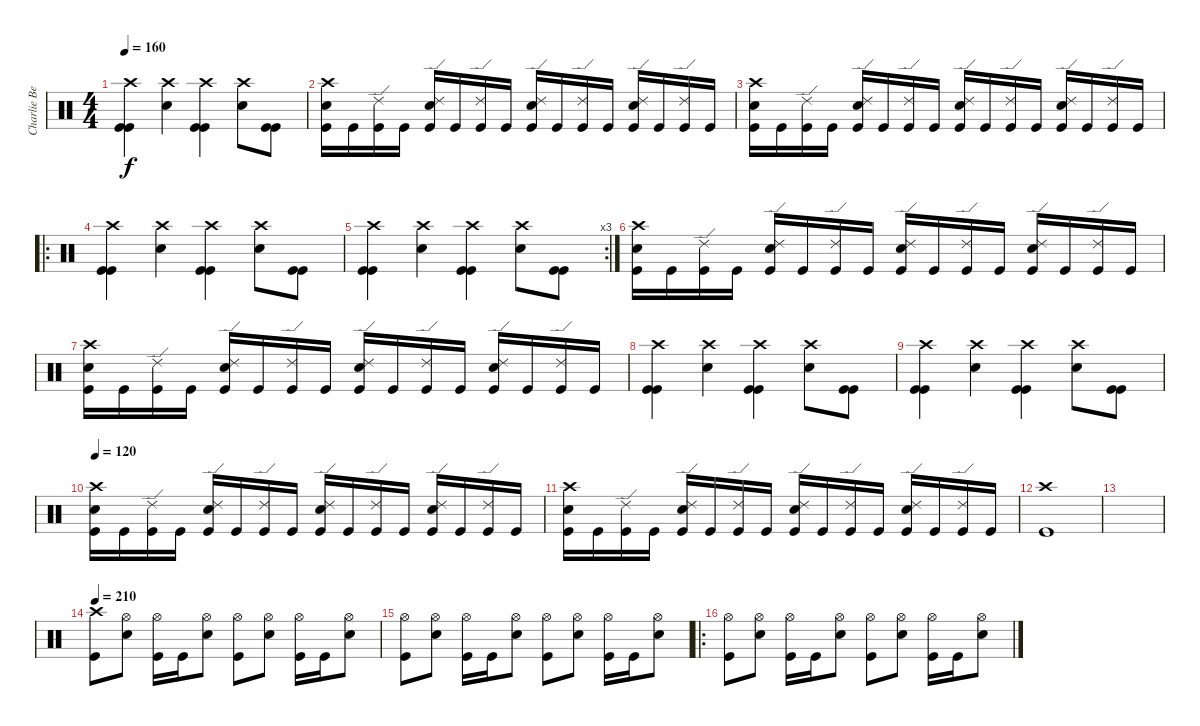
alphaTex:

\track ("Charlie Benante" "Charlie Be") {instrument percussion}
\staff {score}
\articulation defaults
\ts (4 4)
\tempo 160
\clef neutral
\ks c
("Crash high (hit)" "Kick (hit)" "Kick (hit)").4{dy f} ("Crash high (hit)" "Snare (hit) 2").4 ("Crash high (hit)" "Kick (hit)" "Kick (hit)").4 ("Crash high (hit)" "Snare (hit) 2").8 ("Kick (hit)" "Kick (hit)").8 |
("Crash high (hit)" "Snare (hit) 2" "Kick (hit)").16 "Kick (hit)".16 ("Ride (edge) 2" "Kick (hit)").16 "Kick (hit)".16 ("Ride (edge) 2" "Snare (hit) 2" "Kick (hit)").16 "Kick (hit)".16 ("Ride (edge) 2" "Kick (hit)").16 "Kick (hit)".16 ("Ride (edge) 2" "Snare (hit) 2" "Kick (hit)").16 "Kick (hit)".16 ("Ride (edge) 2" "Kick (hit)").16 "Kick (hit)".16 ("Ride (edge) 2" "Snare (hit) 2" "Kick (hit)").16 "Kick (hit)".16 ("Ride (edge) 2" "Kick (hit)").16 "Kick (hit)".16 |
("Crash high (hit)" "Snare (hit) 2" "Kick (hit)").16 "Kick (hit)".16 ("Ride (edge) 2" "Kick (hit)").16 "Kick (hit)".16 ("Ride (edge) 2" "Snare (hit) 2" "Kick (hit)").16 "Kick (hit)".16 ("Ride (edge) 2" "Kick (hit)").16 "Kick (hit)".16 ("Ride (edge) 2" "Snare (hit) 2" "Kick (hit)").16 "Kick (hit)".16 ("Ride (edge) 2" "Kick (hit)").16 "Kick (hit)".16 ("Ride (edge) 2" "Snare (hit) 2" "Kick (hit)").16 "Kick (hit)".16 ("Ride (edge) 2" "Kick (hit)").16 "Kick (hit)".16 |
\ro
("Crash high (hit)" "Kick (hit)" "Kick (hit)").4 ("Crash high (hit)" "Snare (hit) 2").4 ("Crash high (hit)" "Kick (hit)" "Kick (hit)").4 ("Crash high (hit)" "Snare (hit) 2").8 ("Kick (hit)" "Kick (hit)").8 |
\rc 3
("Crash high (hit)" "Kick (hit)" "Kick (hit)").4 ("Crash high (hit)" "Snare (hit) 2").4 ("Crash high (hit)" "Kick (hit)" "Kick (hit)").4 ("Crash high (hit)" "Snare (hit) 2").8 ("Kick (hit)" "Kick (hit)").8 |
("Crash high (hit)" "Snare (hit) 2" "Kick (hit)").16 "Kick (hit)".16 ("Ride (edge) 2" "Kick (hit)").16 "Kick (hit)".16 ("Ride (edge) 2" "Snare (hit) 2" "Kick (hit)").16 "Kick (hit)".16 ("Ride (edge) 2" "Kick (hit)").16 "Kick (hit)".16 ("Ride (edge) 2" "Snare (hit) 2" "Kick (hit)").16 "Kick (hit)".16 ("Ride (edge) 2" "Kick (hit)").16 "Kick (hit)".16 ("Ride (edge) 2" "Snare (hit) 2" "Kick (hit)").16 "Kick (hit)".16 ("Ride (edge) 2" "Kick (hit)").16 "Kick (hit)".16 |
("Crash high (hit)" "Snare (hit) 2" "Kick (hit)").16 "Kick (hit)".16 ("Ride (edge) 2" "Kick (hit)").16 "Kick (hit)".16 ("Ride (edge) 2" "Snare (hit) 2" "Kick (hit)").16 "Kick (hit)".16 ("Ride (edge) 2" "Kick (hit)").16 "Kick (hit)".16 ("Ride (edge) 2" "Snare (hit) 2" "Kick (hit)").16 "Kick (hit)".16 ("Ride (edge) 2" "Kick (hit)").16 "Kick (hit)".16 ("Ride (edge) 2" "Snare (hit) 2" "Kick (hit)").16 "Kick (hit)".16 ("Ride (edge) 2" "Kick (hit)").16 "Kick (hit)".16 |
("Crash high (hit)" "Kick (hit)" "Kick (hit)").4 ("Crash high (hit)" "Snare (hit) 2").4 ("Crash high (hit)" "Kick (hit)" "Kick (hit)").4 ("Crash high (hit)" "Snare (hit) 2").8 ("Kick (hit)" "Kick (hit)").8 |
("Crash high (hit)" "Kick (hit)" "Kick (hit)").4 ("Crash high (hit)" "Snare (hit) 2").4 ("Crash high (hit)" "Kick (hit)" "Kick (hit)").4 ("Crash high (hit)" "Snare (hit) 2").8 ("Kick (hit)" "Kick (hit)").8 |
\tempo 120
("Crash high (hit)" "Snare (hit) 2" "Kick (hit)").16 "Kick (hit)".16 ("Ride (edge) 2" "Kick (hit)").16 "Kick (hit)".16 ("Ride (edge) 2" "Snare (hit) 2" "Kick (hit)").16 "Kick (hit)".16 ("Ride (edge) 2" "Kick (hit)").16 "Kick (hit)".16 ("Ride (edge) 2" "Snare (hit) 2" "Kick (hit)").16 "Kick (hit)".16 ("Ride (edge) 2" "Kick (hit)").16 "Kick (hit)".16 ("Ride (edge) 2" "Snare (hit) 2" "Kick (hit)").16 "Kick (hit)".16 ("Ride (edge) 2" "Kick (hit)").16 "Kick (hit)".16 |
("Crash high (hit)" "Snare (hit) 2" "Kick (hit)").16 "Kick (hit)".16 ("Ride (edge) 2" "Kick (hit)").16 "Kick (hit)".16 ("Ride (edge) 2" "Snare (hit) 2" "Kick (hit)").16 "Kick (hit)".16 ("Ride (edge) 2" "Kick (hit)").16 "Kick (hit)".16 ("Ride (edge) 2" "Snare (hit) 2" "Kick (hit)").16 "Kick (hit)".16 ("Ride (edge) 2" "Kick (hit)").16 "Kick (hit)".16 ("Ride (edge) 2" "Snare (hit) 2" "Kick (hit)").16 "Kick (hit)".16 ("Ride (edge) 2" "Kick (hit)").16 "Kick (hit)".16 |
("Crash high (hit)" "Kick (hit)").1 |
|
\tempo 210
("Crash high (hit)" "Kick (hit)").8 ("Hi-Hat (open)" "Snare (hit) 2").8 ("Hi-Hat (open)" "Kick (hit)").16 "Kick (hit)".16 ("Hi-Hat (open)" "Snare (hit) 2").8 ("Hi-Hat (open)" "Kick (hit)").8 ("Hi-Hat (open)" "Snare (hit) 2").8 ("Hi-Hat (open)" "Kick (hit)").16 "Kick (hit)".16 ("Hi-Hat (open)" "Snare (hit) 2").8 |
("Hi-Hat (open)" "Kick (hit)").8 ("Hi-Hat (open)" "Snare (hit) 2").8 ("Hi-Hat (open)" "Kick (hit)").16 "Kick (hit)".16 ("Hi-Hat (open)" "Snare (hit) 2").8 ("Hi-Hat (open)" "Kick (hit)").8 ("Hi-Hat (open)" "Snare (hit) 2").8 ("Hi-Hat (open)" "Kick (hit)").16 "Kick (hit)".16 ("Hi-Hat (open)" "Snare (hit) 2").8 |
\ro
("Hi-Hat (open)" "Kick (hit)").8 ("Hi-Hat (open)" "Snare (hit) 2").8 ("Hi-Hat (open)" "Kick (hit)").16 "Kick (hit)".16 ("Hi-Hat (open)" "Snare (hit) 2").8 ("Hi-Hat (open)" "Kick (hit)").8 ("Hi-Hat (open)" "Snare (hit) 2").8 ("Hi-Hat (open)" "Kick (hit)").16 "Kick (hit)".16 ("Hi-Hat (open)" "Snare (hit) 2").8
